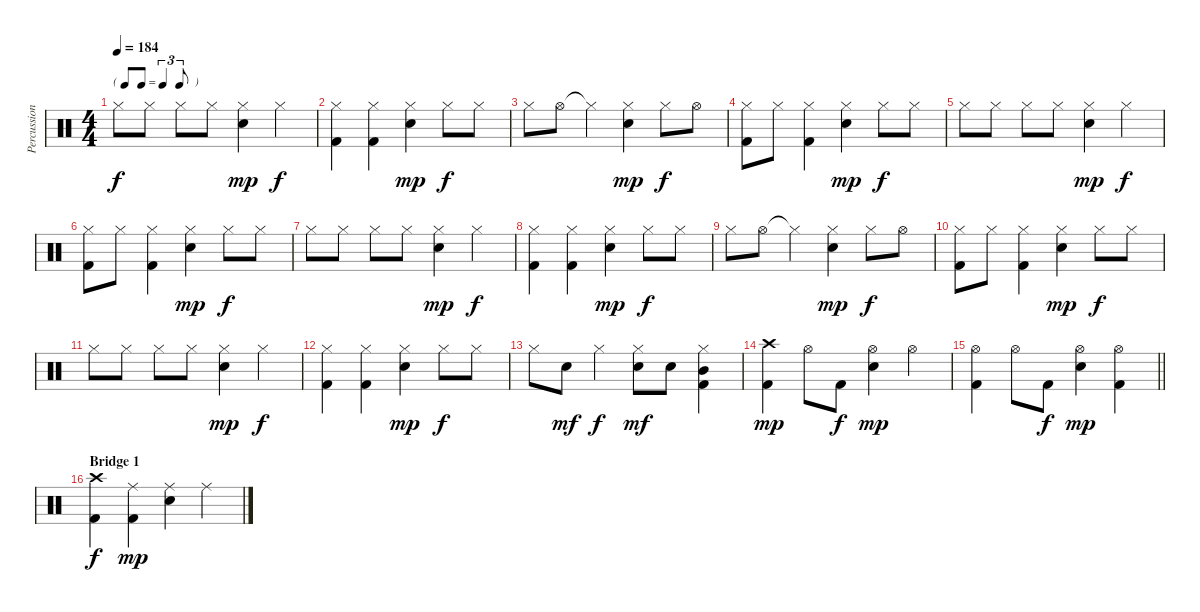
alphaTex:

\track ("Percussion" "Percussion") {instrument percussion}
\staff {score}
\articulation defaults
\ts (4 4)
\tf triplet8th
\tempo 184
\clef neutral
\ks c "Hi-Hat (closed)".8{dy f} "Hi-Hat (closed)".8 "Hi-Hat (closed)".8 "Hi-Hat (closed)".8
("Hi-Hat (closed)" "Electric Snare (hit)").4{dy mp} "Hi-Hat (closed)".4{dy f} |
("Hi-Hat (closed)" "Kick (hit) 2").4 ("Hi-Hat (closed)" "Kick (hit) 2").4 ("Hi-Hat (closed)" "Electric Snare (hit)").4{dy mp} "Hi-Hat (closed)".8{dy f} "Hi-Hat (closed)".8 |
"Hi-Hat (closed)".8 "Hi-Hat (open)".8 "Hi-Hat (closed)"{t}.4 ("Hi-Hat (closed)" "Electric Snare (hit)").4{dy mp} "Hi-Hat (closed)".8{dy f} "Hi-Hat (open)".8 |
("Hi-Hat (closed)" "Kick (hit) 2").8 "Hi-Hat (closed)".8 ("Hi-Hat (closed)" "Kick (hit) 2").4 ("Hi-Hat (closed)" "Electric Snare (hit)").4{dy mp} "Hi-Hat (closed)".8{dy f} "Hi-Hat (closed)".8 |
"Hi-Hat (closed)".8 "Hi-Hat (closed)".8 "Hi-Hat (closed)".8 "Hi-Hat (closed)".8 ("Hi-Hat (closed)" "Electric Snare (hit)").4{dy mp} "Hi-Hat (closed)".4{dy f} |
("Hi-Hat (closed)" "Kick (hit) 2").8 "Hi-Hat (closed)".8 ("Hi-Hat (closed)" "Kick (hit) 2").4 ("Hi-Hat (closed)" "Electric Snare (hit)").4{dy mp} "Hi-Hat (closed)".8{dy f} "Hi-Hat (closed)".8 |
"Hi-Hat (closed)".8 "Hi-Hat (closed)".8 "Hi-Hat (closed)".8 "Hi-Hat (closed)".8 ("Hi-Hat (closed)" "Electric Snare (hit)").4{dy mp} "Hi-Hat (closed)".4{dy f} |
("Hi-Hat (closed)" "Kick (hit) 2").4 ("Hi-Hat (closed)" "Kick (hit) 2").4 ("Hi-Hat (closed)" "Electric Snare (hit)").4{dy mp} "Hi-Hat (closed)".8{dy f} "Hi-Hat (closed)".8 |
"Hi-Hat (closed)".8 "Hi-Hat (open)".8 "Hi-Hat (closed)"{t}.4 ("Hi-Hat (closed)" "Electric Snare (hit)").4{dy mp} "Hi-Hat (closed)".8{dy f} "Hi-Hat (open)".8 |
("Hi-Hat (closed)" "Kick (hit) 2").8 "Hi-Hat (closed)".8 ("Hi-Hat (closed)" "Kick (hit) 2").4 ("Hi-Hat (closed)" "Electric Snare (hit)").4{dy mp} "Hi-Hat (closed)".8{dy f} "Hi-Hat (closed)".8 |
"Hi-Hat (closed)".8 "Hi-Hat (closed)".8 "Hi-Hat (closed)".8 "Hi-Hat (closed)".8 ("Hi-Hat (closed)" "Electric Snare (hit)").4{dy mp} "Hi-Hat (closed)".4{dy f} |
("Hi-Hat (closed)" "Kick (hit) 2").4 ("Hi-Hat (closed)" "Kick (hit) 2").4 ("Hi-Hat (closed)" "Electric Snare (hit)").4{dy mp} "Hi-Hat (closed)".8{dy f} "Hi-Hat (closed)".8 |
"Hi-Hat (closed)".8 "Electric Snare (hit)".8{dy mf} "Hi-Hat (closed)".4{dy f} ("Hi-Hat (closed)" "Electric Snare (hit)").8{dy mf} "Electric Snare (hit)".8 ("Hi-Hat (closed)" "Mid Tom (hit)" "Kick (hit) 2").4 |
("Crash high (hit)" "Kick (hit) 2").4{dy mp} "Hi-Hat (open)".8 "Kick (hit) 2".8{dy f} ("Hi-Hat (open)" "Electric Snare (hit)").4{dy mp} "Hi-Hat (open)".4 |
\barLineRight lightlight
("Hi-Hat (open)" "Kick (hit) 2").4 "Hi-Hat (open)".8 "Kick (hit) 2".8{dy f} ("Hi-Hat (open)" "Electric Snare (hit)").4{dy mp} ("Hi-Hat (open)" "Kick (hit) 2").4 |
\section ("" "Bridge 1")
("Crash high (hit)" "Kick (hit) 2").4{dy f} ("Ride (middle)" "Kick (hit) 2").4{dy mp} ("Ride (middle)" "Electric Snare (hit)").4 "Ride (middle)".4
